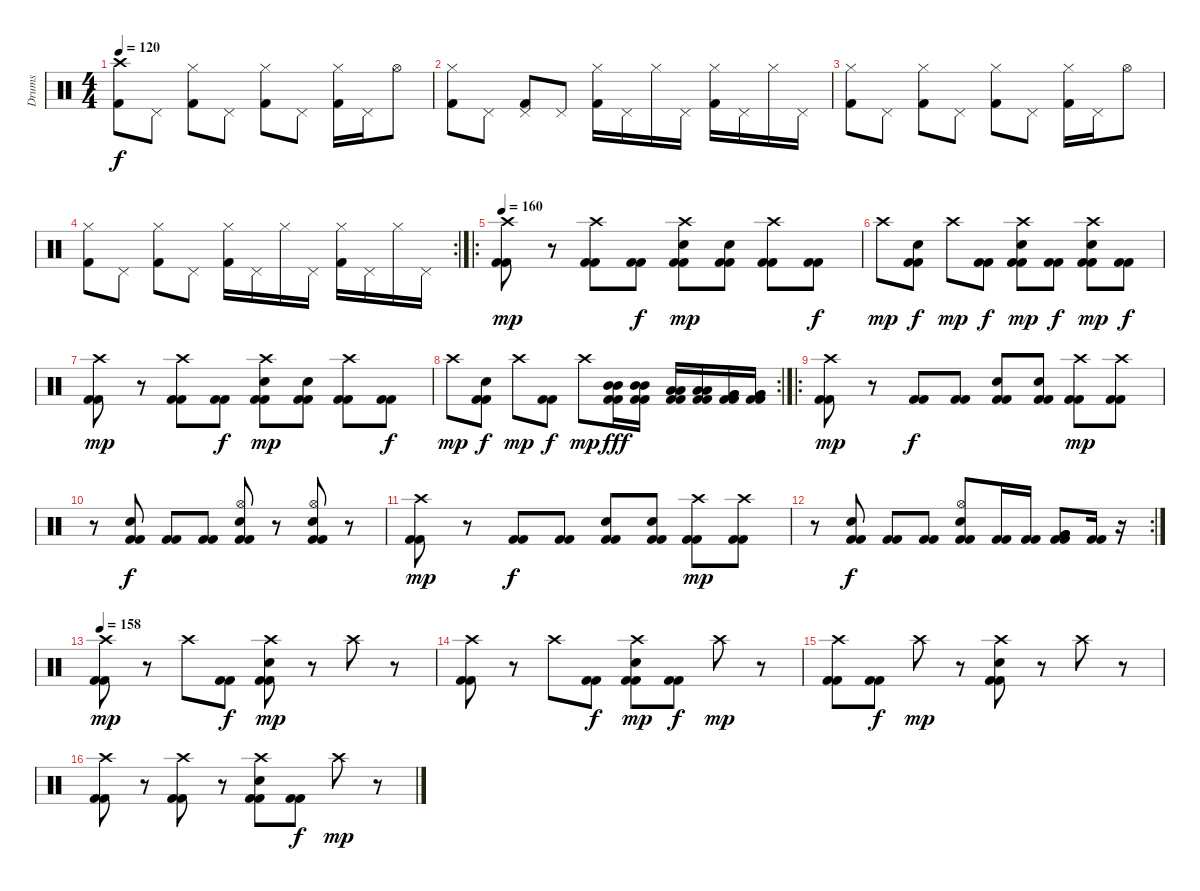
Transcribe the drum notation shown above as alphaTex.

\track ("Drums" "Drums") {instrument percussion}
\staff {score}
\articulation defaults
\ts (4 4)
\tempo 120
\tempo 156
\tempo 120
\clef neutral
\ks c
("Crash high (hit)" "Kick (hit) 2").8{dy f} "Pedal Hi-Hat (hit)".8 ("Hi-Hat (closed)" "Kick (hit) 2").8 "Pedal Hi-Hat (hit)".8 ("Hi-Hat (closed)" "Kick (hit) 2").8 "Pedal Hi-Hat (hit)".8 ("Hi-Hat (closed)" "Kick (hit) 2").16 "Pedal Hi-Hat (hit)".16 "Hi-Hat (open)".8 |
("Hi-Hat (closed)" "Kick (hit) 2").8 "Pedal Hi-Hat (hit)".8 ("Pedal Hi-Hat (hit)" "Kick (hit) 2").8 "Pedal Hi-Hat (hit)".8 ("Hi-Hat (closed)" "Kick (hit) 2").16 "Pedal Hi-Hat (hit)".16 "Hi-Hat (closed)".16 "Pedal Hi-Hat (hit)".16 ("Hi-Hat (closed)" "Kick (hit) 2").16 "Pedal Hi-Hat (hit)".16 "Hi-Hat (closed)".16 "Pedal Hi-Hat (hit)".16 |
("Hi-Hat (closed)" "Kick (hit) 2").8 "Pedal Hi-Hat (hit)".8 ("Hi-Hat (closed)" "Kick (hit) 2").8 "Pedal Hi-Hat (hit)".8 ("Hi-Hat (closed)" "Kick (hit) 2").8 "Pedal Hi-Hat (hit)".8 ("Hi-Hat (closed)" "Kick (hit) 2").16 "Pedal Hi-Hat (hit)".16 "Hi-Hat (open)".8 |
\rc 2
("Hi-Hat (closed)" "Kick (hit) 2").8 "Pedal Hi-Hat (hit)".8 ("Hi-Hat (closed)" "Kick (hit) 2").8 "Pedal Hi-Hat (hit)".8 ("Hi-Hat (closed)" "Kick (hit) 2").16 "Pedal Hi-Hat (hit)".16 "Hi-Hat (closed)".16 "Pedal Hi-Hat (hit)".16 ("Hi-Hat (closed)" "Kick (hit) 2").16 "Pedal Hi-Hat (hit)".16 "Hi-Hat (closed)".16 "Pedal Hi-Hat (hit)".16 |
\ro
\tempo 160
("Crash high (hit)" "Kick (hit) 2" "Kick (hit) 2").8{dy mp} r.8 ("Crash high (hit)" "Kick (hit) 2" "Kick (hit) 2").8 ("Kick (hit) 2" "Kick (hit) 2").8{dy f} ("Crash high (hit)" "Snare (hit) 2" "Kick (hit) 2" "Kick (hit) 2").8{dy mp} ("Snare (hit) 2" "Kick (hit) 2" "Kick (hit) 2").8 ("Crash high (hit)" "Kick (hit) 2" "Kick (hit) 2").8 ("Kick (hit) 2" "Kick (hit) 2").8{dy f} |
"Crash high (hit)".8{dy mp} ("Snare (hit) 2" "Kick (hit) 2" "Kick (hit) 2").8{dy f} "Crash high (hit)".8{dy mp} ("Kick (hit) 2" "Kick (hit) 2").8{dy f} ("Crash high (hit)" "Snare (hit) 2" "Kick (hit) 2" "Kick (hit) 2").8{dy mp} ("Kick (hit) 2" "Kick (hit) 2").8{dy f} ("Crash high (hit)" "Snare (hit) 2" "Kick (hit) 2" "Kick (hit) 2").8{dy mp} ("Kick (hit) 2" "Kick (hit) 2").8{dy f} |
("Crash high (hit)" "Kick (hit) 2" "Kick (hit) 2").8{dy mp} r.8 ("Crash high (hit)" "Kick (hit) 2" "Kick (hit) 2").8 ("Kick (hit) 2" "Kick (hit) 2").8{dy f} ("Crash high (hit)" "Snare (hit) 2" "Kick (hit) 2" "Kick (hit) 2").8{dy mp} ("Snare (hit) 2" "Kick (hit) 2" "Kick (hit) 2").8 ("Crash high (hit)" "Kick (hit) 2" "Kick (hit) 2").8 ("Kick (hit) 2" "Kick (hit) 2").8{dy f} |
\rc 2 "Crash high (hit)".8{dy mp}
("Snare (hit) 2" "Kick (hit) 2" "Kick (hit) 2").8{dy f} "Crash high (hit)".8{dy mp} ("Kick (hit) 2" "Kick (hit) 2").8{dy f} "Crash high (hit)".8{dy mp} ("Mid Tom (hit)" "Mid Tom (hit)" "Kick (hit) 2" "Kick (hit) 2").16{dy fff} ("Mid Tom (hit)" "Mid Tom (hit)" "Kick (hit) 2" "Kick (hit) 2").16 ("Low Tom (hit)" "Low Tom (hit)" "Kick (hit) 2" "Kick (hit) 2").16 ("Low Tom (hit)" "Low Tom (hit)" "Kick (hit) 2" "Kick (hit) 2").16 ("Very Low Tom (hit)" "Very Low Tom (hit)" "Kick (hit) 2" "Kick (hit) 2").16 ("Very Low Tom (hit)" "Very Low Tom (hit)" "Kick (hit) 2" "Kick (hit) 2").16 |
\ro
("Crash high (hit)" "Kick (hit) 2" "Kick (hit) 2").8{dy mp} r.8 ("Kick (hit) 2" "Kick (hit) 2").8{dy f} ("Kick (hit) 2" "Kick (hit) 2").8 ("Snare (hit) 2" "Kick (hit) 2" "Kick (hit) 2").8 ("Snare (hit) 2" "Kick (hit) 2" "Kick (hit) 2").8 ("Crash high (hit)" "Kick (hit) 2" "Kick (hit) 2").8{dy mp} ("Crash high (hit)" "Kick (hit) 2" "Kick (hit) 2").8 |
r.8 ("Snare (hit) 2" "Kick (hit) 2" "Kick (hit) 2").8{dy f} ("Kick (hit) 2" "Kick (hit) 2").8 ("Kick (hit) 2" "Kick (hit) 2").8 ("Hi-Hat (open)" "Snare (hit) 2" "Kick (hit) 2" "Kick (hit) 2").8 r.8 ("Hi-Hat (open)" "Snare (hit) 2" "Kick (hit) 2" "Kick (hit) 2").8 r.8 |
("Crash high (hit)" "Kick (hit) 2" "Kick (hit) 2").8{dy mp} r.8 ("Kick (hit) 2" "Kick (hit) 2").8{dy f} ("Kick (hit) 2" "Kick (hit) 2").8 ("Snare (hit) 2" "Kick (hit) 2" "Kick (hit) 2").8 ("Snare (hit) 2" "Kick (hit) 2" "Kick (hit) 2").8 ("Crash high (hit)" "Kick (hit) 2" "Kick (hit) 2").8{dy mp} ("Crash high (hit)" "Kick (hit) 2" "Kick (hit) 2").8 |
\rc 2
r.8 ("Snare (hit) 2" "Kick (hit) 2" "Kick (hit) 2").8{dy f} ("Kick (hit) 2" "Kick (hit) 2").8 ("Kick (hit) 2" "Kick (hit) 2").8 ("Hi-Hat (open)" "Snare (hit) 2" "Kick (hit) 2" "Kick (hit) 2").8 ("Kick (hit) 2" "Kick (hit) 2").16 ("Kick (hit) 2" "Kick (hit) 2").16 ("Very Low Tom (hit)" "Very Low Tom (hit)" "Kick (hit) 2" "Kick (hit) 2").8 ("Kick (hit) 2" "Kick (hit) 2").16 r.16 |
\tempo 158
("Crash high (hit)" "Kick (hit) 2" "Kick (hit) 2").8{dy mp} r.8 "Crash high (hit)".8 ("Kick (hit) 2" "Kick (hit) 2").8{dy f} ("Crash high (hit)" "Snare (hit) 2" "Kick (hit) 2" "Kick (hit) 2").8{dy mp} r.8 "Crash high (hit)".8 r.8 |
("Crash high (hit)" "Kick (hit) 2" "Kick (hit) 2").8 r.8 "Crash high (hit)".8 ("Kick (hit) 2" "Kick (hit) 2").8{dy f} ("Crash high (hit)" "Snare (hit) 2" "Kick (hit) 2" "Kick (hit) 2").8{dy mp} ("Kick (hit) 2" "Kick (hit) 2").8{dy f} "Crash high (hit)".8{dy mp} r.8 |
("Crash high (hit)" "Kick (hit) 2" "Kick (hit) 2").8 ("Kick (hit) 2" "Kick (hit) 2").8{dy f} "Crash high (hit)".8{dy mp} r.8 ("Crash high (hit)" "Snare (hit) 2" "Kick (hit) 2" "Kick (hit) 2").8 r.8 "Crash high (hit)".8 r.8 |
("Crash high (hit)" "Kick (hit) 2" "Kick (hit) 2").8 r.8 ("Crash high (hit)" "Kick (hit) 2" "Kick (hit) 2").8 r.8 ("Crash high (hit)" "Snare (hit) 2" "Kick (hit) 2" "Kick (hit) 2").8 ("Kick (hit) 2" "Kick (hit) 2").8{dy f} "Crash high (hit)".8{dy mp} r.8
